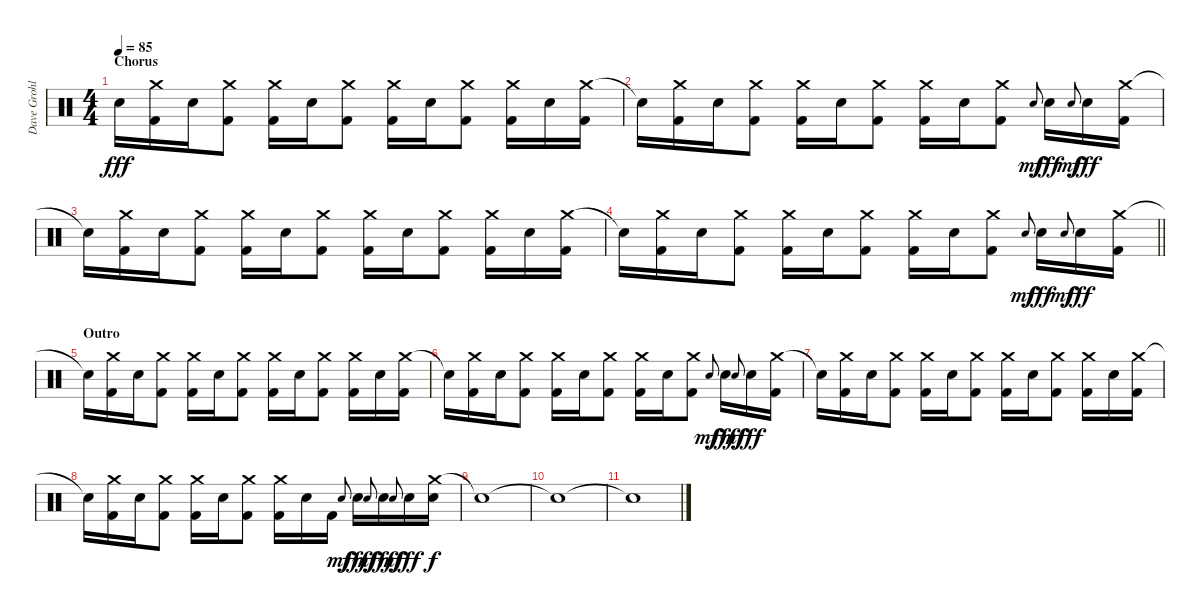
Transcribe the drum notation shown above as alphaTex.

\track ("Dave Grohl ( Drums )" "Dave Grohl") {instrument percussion}
\staff {score}
\articulation defaults
\ts (4 4)
\section ("" "Chorus ")
\tempo 85
\clef neutral
\ks c "Snare (hit)"{t}.16{dy fff}
("Crash medium (hit)" "Kick (hit) 2").16 "Electric Snare (hit)".16 ("Crash medium (hit)" "Kick (hit) 2").8 ("Crash medium (hit)" "Kick (hit) 2").16 "Electric Snare (hit)".16 ("Crash medium (hit)" "Kick (hit) 2").8 ("Crash medium (hit)" "Kick (hit) 2").16 "Electric Snare (hit)".16 ("Crash medium (hit)" "Kick (hit) 2").8 ("Crash medium (hit)" "Kick (hit) 2").16 "Electric Snare (hit)".16 ("Crash medium (hit)" "Kick (hit) 2").16 |
"Snare (hit)"{t}.16 ("Crash medium (hit)" "Kick (hit) 2").16 "Electric Snare (hit)".16 ("Crash medium (hit)" "Kick (hit) 2").8 ("Crash medium (hit)" "Kick (hit) 2").16 "Electric Snare (hit)".16 ("Crash medium (hit)" "Kick (hit) 2").8 ("Crash medium (hit)" "Kick (hit) 2").16 "Electric Snare (hit)".16 ("Crash medium (hit)" "Kick (hit) 2").8 "Electric Snare (hit)".8{gr onbeat dy mf} "Electric Snare (hit)".16{dy fff} "Electric Snare (hit)".8{gr onbeat dy mf} "Electric Snare (hit)".16{dy fff} ("Crash medium (hit)" "Kick (hit) 2").16 |
"Snare (hit)"{t}.16 ("Crash medium (hit)" "Kick (hit) 2").16 "Electric Snare (hit)".16 ("Crash medium (hit)" "Kick (hit) 2").8 ("Crash medium (hit)" "Kick (hit) 2").16 "Electric Snare (hit)".16 ("Crash medium (hit)" "Kick (hit) 2").8 ("Crash medium (hit)" "Kick (hit) 2").16 "Electric Snare (hit)".16 ("Crash medium (hit)" "Kick (hit) 2").8 ("Crash medium (hit)" "Kick (hit) 2").16 "Electric Snare (hit)".16 ("Crash medium (hit)" "Kick (hit) 2").16 |
\barLineRight lightlight "Snare (hit)"{t}.16
("Crash medium (hit)" "Kick (hit) 2").16 "Electric Snare (hit)".16 ("Crash medium (hit)" "Kick (hit) 2").8 ("Crash medium (hit)" "Kick (hit) 2").16 "Electric Snare (hit)".16 ("Crash medium (hit)" "Kick (hit) 2").8 ("Crash medium (hit)" "Kick (hit) 2").16 "Electric Snare (hit)".16 ("Crash medium (hit)" "Kick (hit) 2").8 "Electric Snare (hit)".8{gr onbeat dy mf} "Electric Snare (hit)".16{dy fff} "Electric Snare (hit)".8{gr onbeat dy mf} "Electric Snare (hit)".16{dy fff} ("Crash medium (hit)" "Kick (hit) 2").16 |
\section ("" "Outro")
"Snare (hit)"{t}.16 ("Crash medium (hit)" "Kick (hit) 2").16 "Electric Snare (hit)".16 ("Crash medium (hit)" "Kick (hit) 2").8 ("Crash medium (hit)" "Kick (hit) 2").16 "Electric Snare (hit)".16 ("Crash medium (hit)" "Kick (hit) 2").8 ("Crash medium (hit)" "Kick (hit) 2").16 "Electric Snare (hit)".16 ("Crash medium (hit)" "Kick (hit) 2").8 ("Crash medium (hit)" "Kick (hit) 2").16 "Electric Snare (hit)".16 ("Crash medium (hit)" "Kick (hit) 2").16 |
"Snare (hit)"{t}.16 ("Crash medium (hit)" "Kick (hit) 2").16 "Electric Snare (hit)".16 ("Crash medium (hit)" "Kick (hit) 2").8 ("Crash medium (hit)" "Kick (hit) 2").16 "Electric Snare (hit)".16 ("Crash medium (hit)" "Kick (hit) 2").8 ("Crash medium (hit)" "Kick (hit) 2").16 "Electric Snare (hit)".16 ("Crash medium (hit)" "Kick (hit) 2").8 "Electric Snare (hit)".8{gr onbeat dy mf} "Electric Snare (hit)".16{dy fff} "Electric Snare (hit)".8{gr onbeat dy mf} "Electric Snare (hit)".16{dy fff} ("Crash medium (hit)" "Kick (hit) 2").16 |
"Snare (hit)"{t}.16 ("Crash medium (hit)" "Kick (hit) 2").16 "Electric Snare (hit)".16 ("Crash medium (hit)" "Kick (hit) 2").8 ("Crash medium (hit)" "Kick (hit) 2").16 "Electric Snare (hit)".16 ("Crash medium (hit)" "Kick (hit) 2").8 ("Crash medium (hit)" "Kick (hit) 2").16 "Electric Snare (hit)".16 ("Crash medium (hit)" "Kick (hit) 2").8 ("Crash medium (hit)" "Kick (hit) 2").16 "Electric Snare (hit)".16 ("Crash medium (hit)" "Kick (hit) 2").16 |
"Snare (hit)"{t}.16 ("Crash medium (hit)" "Kick (hit) 2").16 "Electric Snare (hit)".16 ("Crash medium (hit)" "Kick (hit) 2").8 ("Crash medium (hit)" "Kick (hit) 2").16 "Electric Snare (hit)".16 ("Crash medium (hit)" "Kick (hit) 2").8 ("Crash medium (hit)" "Kick (hit) 2").16 "Electric Snare (hit)".16 "Kick (hit) 2".16 "Electric Snare (hit)".8{gr onbeat dy mf} "Electric Snare (hit)".16{dy fff} "Electric Snare (hit)".8{gr onbeat dy mf} "Electric Snare (hit)".16{dy fff} "Electric Snare (hit)".8{gr onbeat dy mf} "Electric Snare (hit)".16{dy fff} ("Crash medium (hit)" "Electric Snare (hit)").16{dy f} |
"Snare (hit)"{t}.1 |
"Snare (hit)"{t}.1 |
"Snare (hit)"{t}.1
